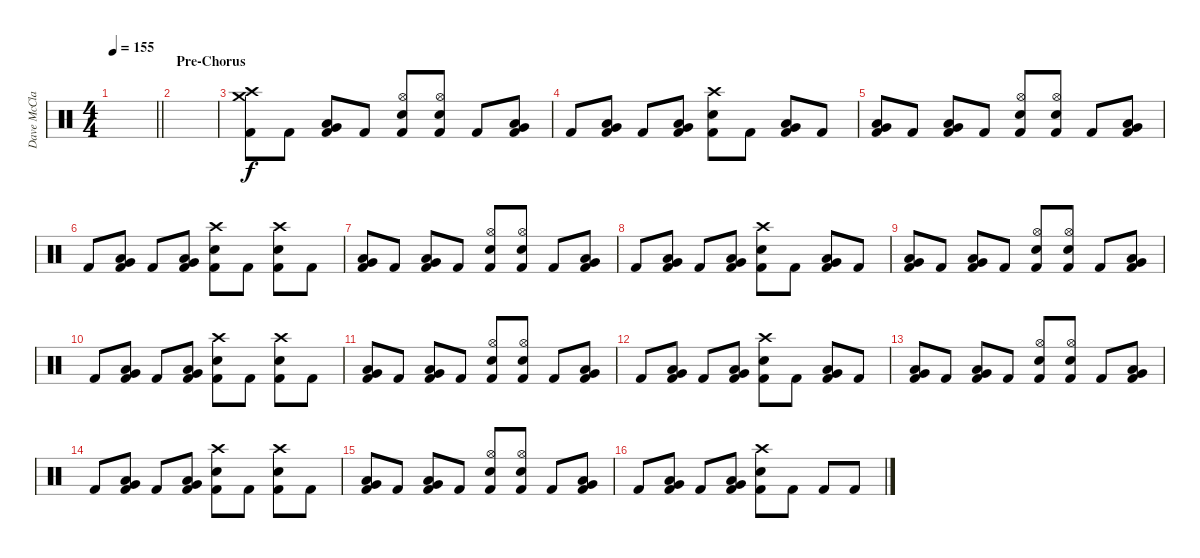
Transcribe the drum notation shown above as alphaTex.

\track ("Dave McClain (Drums)" "Dave McCla") {instrument percussion}
\staff {score}
\articulation defaults
\ts (4 4)
\tempo 155
\clef neutral
\barLineRight lightlight
\ks c
|
\section ("" "Pre-Chorus")
|
("Crash high (hit)" "Crash medium (hit)" "Kick (hit) 2").8 "Kick (hit) 2".8 ("Very Low Tom (hit)" "Low Floor Tom (hit)" "Kick (hit) 2").8 "Kick (hit) 2".8 ("Hi-Hat (open)" "Electric Snare (hit)" "Kick (hit) 2").8 ("Hi-Hat (open)" "Electric Snare (hit)" "Kick (hit) 2").8 "Kick (hit) 2".8 ("Very Low Tom (hit)" "Low Tom (hit)" "Kick (hit) 2").8 |
"Kick (hit) 2".8 ("Very Low Tom (hit)" "Low Floor Tom (hit)" "Kick (hit) 2").8 "Kick (hit) 2".8 ("Very Low Tom (hit)" "Low Floor Tom (hit)" "Kick (hit) 2").8 ("Crash high (hit)" "Electric Snare (hit)" "Kick (hit) 2").8 "Kick (hit) 2".8 ("Low Tom (hit)" "Very Low Tom (hit)" "Kick (hit) 2").8 "Kick (hit) 2".8 |
("Low Tom (hit)" "Very Low Tom (hit)" "Kick (hit) 2").8 "Kick (hit) 2".8 ("Very Low Tom (hit)" "Low Floor Tom (hit)" "Kick (hit) 2").8 "Kick (hit) 2".8 ("Hi-Hat (open)" "Electric Snare (hit)" "Kick (hit) 2").8 ("Hi-Hat (open)" "Electric Snare (hit)" "Kick (hit) 2").8 "Kick (hit) 2".8 ("Very Low Tom (hit)" "Low Tom (hit)" "Kick (hit) 2").8 |
"Kick (hit) 2".8 ("Very Low Tom (hit)" "Low Floor Tom (hit)" "Kick (hit) 2").8 "Kick (hit) 2".8 ("Very Low Tom (hit)" "Low Floor Tom (hit)" "Kick (hit) 2").8 ("Crash high (hit)" "Electric Snare (hit)" "Kick (hit) 2").8 "Kick (hit) 2".8 ("Crash high (hit)" "Electric Snare (hit)" "Kick (hit) 2").8 "Kick (hit) 2".8 |
("Low Tom (hit)" "Very Low Tom (hit)" "Kick (hit) 2").8 "Kick (hit) 2".8 ("Very Low Tom (hit)" "Low Floor Tom (hit)" "Kick (hit) 2").8 "Kick (hit) 2".8 ("Hi-Hat (open)" "Electric Snare (hit)" "Kick (hit) 2").8 ("Hi-Hat (open)" "Electric Snare (hit)" "Kick (hit) 2").8 "Kick (hit) 2".8 ("Very Low Tom (hit)" "Low Tom (hit)" "Kick (hit) 2").8 |
"Kick (hit) 2".8 ("Very Low Tom (hit)" "Low Floor Tom (hit)" "Kick (hit) 2").8 "Kick (hit) 2".8 ("Very Low Tom (hit)" "Low Floor Tom (hit)" "Kick (hit) 2").8 ("Crash high (hit)" "Electric Snare (hit)" "Kick (hit) 2").8 "Kick (hit) 2".8 ("Low Tom (hit)" "Very Low Tom (hit)" "Kick (hit) 2").8 "Kick (hit) 2".8 |
("Low Tom (hit)" "Very Low Tom (hit)" "Kick (hit) 2").8 "Kick (hit) 2".8 ("Very Low Tom (hit)" "Low Floor Tom (hit)" "Kick (hit) 2").8 "Kick (hit) 2".8 ("Hi-Hat (open)" "Electric Snare (hit)" "Kick (hit) 2").8 ("Hi-Hat (open)" "Electric Snare (hit)" "Kick (hit) 2").8 "Kick (hit) 2".8 ("Very Low Tom (hit)" "Low Tom (hit)" "Kick (hit) 2").8 |
"Kick (hit) 2".8 ("Very Low Tom (hit)" "Low Floor Tom (hit)" "Kick (hit) 2").8 "Kick (hit) 2".8 ("Very Low Tom (hit)" "Low Floor Tom (hit)" "Kick (hit) 2").8 ("Crash high (hit)" "Electric Snare (hit)" "Kick (hit) 2").8 "Kick (hit) 2".8 ("Crash high (hit)" "Electric Snare (hit)" "Kick (hit) 2").8 "Kick (hit) 2".8 |
("Low Tom (hit)" "Very Low Tom (hit)" "Kick (hit) 2").8 "Kick (hit) 2".8 ("Very Low Tom (hit)" "Low Floor Tom (hit)" "Kick (hit) 2").8 "Kick (hit) 2".8 ("Hi-Hat (open)" "Electric Snare (hit)" "Kick (hit) 2").8 ("Hi-Hat (open)" "Electric Snare (hit)" "Kick (hit) 2").8 "Kick (hit) 2".8 ("Very Low Tom (hit)" "Low Tom (hit)" "Kick (hit) 2").8 |
"Kick (hit) 2".8 ("Very Low Tom (hit)" "Low Floor Tom (hit)" "Kick (hit) 2").8 "Kick (hit) 2".8 ("Very Low Tom (hit)" "Low Floor Tom (hit)" "Kick (hit) 2").8 ("Crash high (hit)" "Electric Snare (hit)" "Kick (hit) 2").8 "Kick (hit) 2".8 ("Low Tom (hit)" "Very Low Tom (hit)" "Kick (hit) 2").8 "Kick (hit) 2".8 |
("Low Tom (hit)" "Very Low Tom (hit)" "Kick (hit) 2").8 "Kick (hit) 2".8 ("Very Low Tom (hit)" "Low Floor Tom (hit)" "Kick (hit) 2").8 "Kick (hit) 2".8 ("Hi-Hat (open)" "Electric Snare (hit)" "Kick (hit) 2").8 ("Hi-Hat (open)" "Electric Snare (hit)" "Kick (hit) 2").8 "Kick (hit) 2".8 ("Very Low Tom (hit)" "Low Tom (hit)" "Kick (hit) 2").8 |
"Kick (hit) 2".8 ("Very Low Tom (hit)" "Low Floor Tom (hit)" "Kick (hit) 2").8 "Kick (hit) 2".8 ("Very Low Tom (hit)" "Low Floor Tom (hit)" "Kick (hit) 2").8 ("Crash high (hit)" "Electric Snare (hit)" "Kick (hit) 2").8 "Kick (hit) 2".8 ("Crash high (hit)" "Electric Snare (hit)" "Kick (hit) 2").8 "Kick (hit) 2".8 |
("Low Tom (hit)" "Very Low Tom (hit)" "Kick (hit) 2").8 "Kick (hit) 2".8 ("Very Low Tom (hit)" "Low Floor Tom (hit)" "Kick (hit) 2").8 "Kick (hit) 2".8 ("Hi-Hat (open)" "Electric Snare (hit)" "Kick (hit) 2").8 ("Hi-Hat (open)" "Electric Snare (hit)" "Kick (hit) 2").8 "Kick (hit) 2".8 ("Very Low Tom (hit)" "Low Tom (hit)" "Kick (hit) 2").8 |
"Kick (hit) 2".8 ("Very Low Tom (hit)" "Low Floor Tom (hit)" "Kick (hit) 2").8 "Kick (hit) 2".8 ("Very Low Tom (hit)" "Low Floor Tom (hit)" "Kick (hit) 2").8 ("Crash high (hit)" "Electric Snare (hit)" "Kick (hit) 2").8 "Kick (hit) 2".8 "Kick (hit) 2".8 "Kick (hit) 2".8
